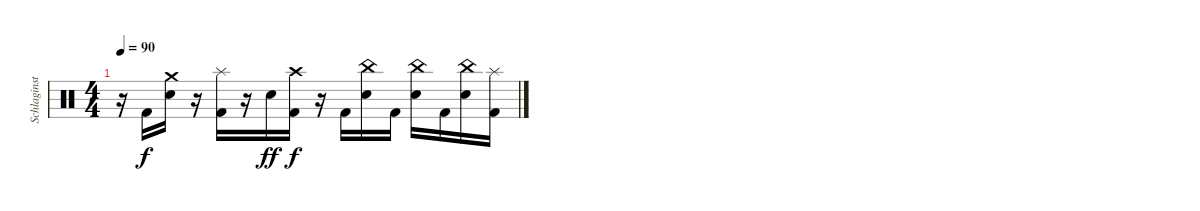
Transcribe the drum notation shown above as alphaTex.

\track ("Schlaginstrumente - Auswahl" "Schlaginst") {instrument percussion}
\staff {score}
\articulation defaults
\ts (4 4)
\tempo 90
\clef neutral
\ks c
r.16{dy f} "Kick (hit) 2".16 ("Crash medium (hit)" "Electric Snare (hit)").16 r.16 ("Splash (hit)" "Kick (hit) 2").16 r.16 "Electric Snare (hit)".16{dy ff} ("Crash high (hit)" "Kick (hit) 2").16{dy f} r.16 "Kick (hit) 2".16 ("China (hit)" "Electric Snare (hit)").16 "Kick (hit) 2".16 ("China (hit)" "Electric Snare (hit)").16 "Kick (hit) 2".16 ("China (hit)" "Electric Snare (hit)").16 ("Splash (hit)" "Kick (hit) 2").16
